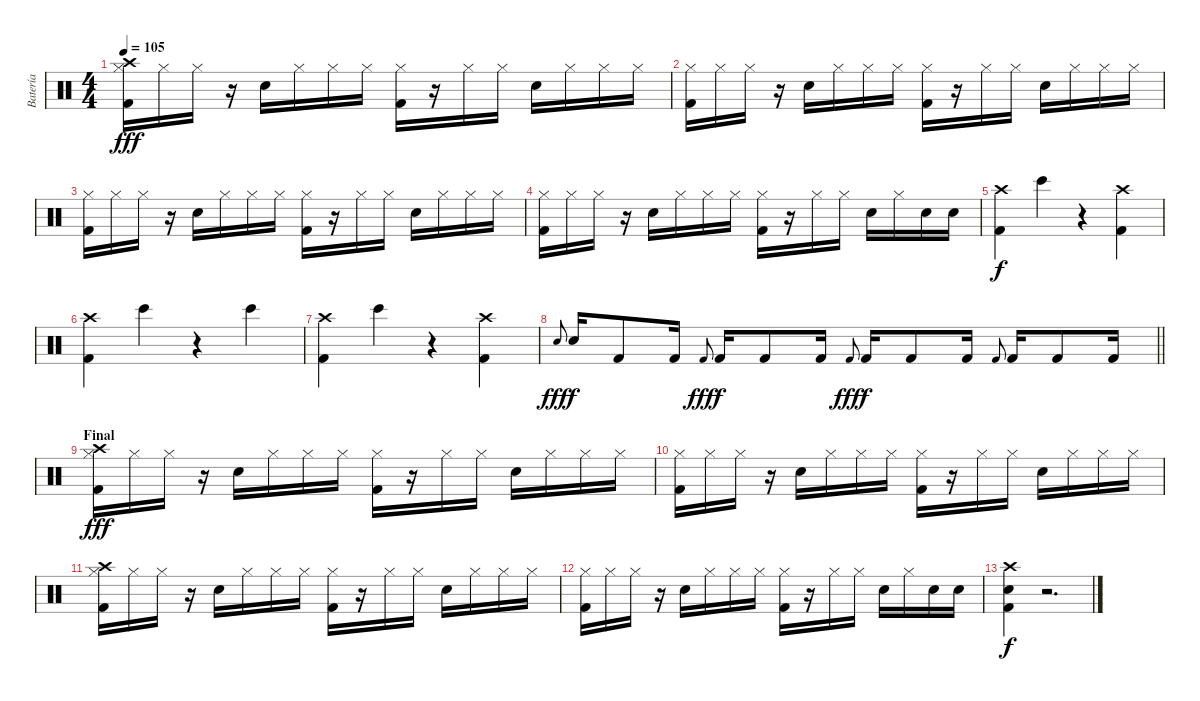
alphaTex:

\track ("Batería" "Batería") {instrument percussion}
\staff {score}
\articulation defaults
\ts (4 4)
\tempo 105
\clef neutral
\ks c
("Crash high (hit)" "Hi-Hat (closed)" "Kick (hit) 2").16{dy fff} "Hi-Hat (closed)".16 "Hi-Hat (closed)".16 r.16 "Electric Snare (hit)".16 "Hi-Hat (closed)".16 "Hi-Hat (closed)".16 "Hi-Hat (closed)".16 ("Hi-Hat (closed)" "Kick (hit) 2").16 r.16 "Hi-Hat (closed)".16 "Hi-Hat (closed)".16 "Electric Snare (hit)".16 "Hi-Hat (closed)".16 "Hi-Hat (closed)".16 "Hi-Hat (closed)".16 |
("Hi-Hat (closed)" "Kick (hit) 2").16 "Hi-Hat (closed)".16 "Hi-Hat (closed)".16 r.16 "Electric Snare (hit)".16 "Hi-Hat (closed)".16 "Hi-Hat (closed)".16 "Hi-Hat (closed)".16 ("Hi-Hat (closed)" "Kick (hit) 2").16 r.16 "Hi-Hat (closed)".16 "Hi-Hat (closed)".16 "Electric Snare (hit)".16 "Hi-Hat (closed)".16 "Hi-Hat (closed)".16 "Hi-Hat (closed)".16 |
("Hi-Hat (closed)" "Kick (hit) 2").16 "Hi-Hat (closed)".16 "Hi-Hat (closed)".16 r.16 "Electric Snare (hit)".16 "Hi-Hat (closed)".16 "Hi-Hat (closed)".16 "Hi-Hat (closed)".16 ("Hi-Hat (closed)" "Kick (hit) 2").16 r.16 "Hi-Hat (closed)".16 "Hi-Hat (closed)".16 "Electric Snare (hit)".16 "Hi-Hat (closed)".16 "Hi-Hat (closed)".16 "Hi-Hat (closed)".16 |
("Hi-Hat (closed)" "Kick (hit) 2").16 "Hi-Hat (closed)".16 "Hi-Hat (closed)".16 r.16 "Electric Snare (hit)".16 "Hi-Hat (closed)".16 "Hi-Hat (closed)".16 "Hi-Hat (closed)".16 ("Hi-Hat (closed)" "Kick (hit) 2").16 r.16 "Hi-Hat (closed)".16 "Hi-Hat (closed)".16 "Electric Snare (hit)".16 "Hi-Hat (closed)".16 "Electric Snare (hit)".16 "Electric Snare (hit)".16 |
("Crash high (hit)" "Kick (hit) 2").4{dy f} "Bongo High (hit)".4 r.4 ("Crash high (hit)" "Kick (hit) 2").4 |
("Crash high (hit)" "Kick (hit) 2").4 "Bongo High (hit)".4 r.4 "Bongo High (hit)".4 |
("Crash high (hit)" "Kick (hit) 2").4 "Bongo High (hit)".4 r.4 ("Crash high (hit)" "Kick (hit) 2").4 |
\barLineRight lightlight "Electric Snare (hit)".8{gr onbeat dy fff} "Electric Snare (hit)".16{dy f} "Kick (hit) 2".8 "Kick (hit) 2".16 "Kick (hit) 2".8{gr onbeat dy fff} "Kick (hit) 2".16{dy f} "Kick (hit) 2".8 "Kick (hit) 2".16 "Kick (hit) 2".8{gr onbeat dy fff} "Kick (hit) 2".16{dy f} "Kick (hit) 2".8 "Kick (hit) 2".16 "Kick (hit) 2"{h}.8{gr onbeat} "Kick (hit) 2".16 "Kick (hit) 2".8 "Kick (hit) 2".16
|
\section ("" "Final")
("Crash high (hit)" "Hi-Hat (closed)" "Kick (hit) 2").16{dy fff} "Hi-Hat (closed)".16 "Hi-Hat (closed)".16 r.16 "Electric Snare (hit)".16 "Hi-Hat (closed)".16 "Hi-Hat (closed)".16 "Hi-Hat (closed)".16 ("Hi-Hat (closed)" "Kick (hit) 2").16 r.16 "Hi-Hat (closed)".16 "Hi-Hat (closed)".16 "Electric Snare (hit)".16 "Hi-Hat (closed)".16 "Hi-Hat (closed)".16 "Hi-Hat (closed)".16 |
("Hi-Hat (closed)" "Kick (hit) 2").16 "Hi-Hat (closed)".16 "Hi-Hat (closed)".16 r.16 "Electric Snare (hit)".16 "Hi-Hat (closed)".16 "Hi-Hat (closed)".16 "Hi-Hat (closed)".16 ("Hi-Hat (closed)" "Kick (hit) 2").16 r.16 "Hi-Hat (closed)".16 "Hi-Hat (closed)".16 "Electric Snare (hit)".16 "Hi-Hat (closed)".16 "Hi-Hat (closed)".16 "Hi-Hat (closed)".16 |
("Crash high (hit)" "Hi-Hat (closed)" "Kick (hit) 2").16 "Hi-Hat (closed)".16 "Hi-Hat (closed)".16 r.16 "Electric Snare (hit)".16 "Hi-Hat (closed)".16 "Hi-Hat (closed)".16 "Hi-Hat (closed)".16 ("Hi-Hat (closed)" "Kick (hit) 2").16 r.16 "Hi-Hat (closed)".16 "Hi-Hat (closed)".16 "Electric Snare (hit)".16 "Hi-Hat (closed)".16 "Hi-Hat (closed)".16 "Hi-Hat (closed)".16 |
("Hi-Hat (closed)" "Kick (hit) 2").16 "Hi-Hat (closed)".16 "Hi-Hat (closed)".16 r.16 "Electric Snare (hit)".16 "Hi-Hat (closed)".16 "Hi-Hat (closed)".16 "Hi-Hat (closed)".16 ("Hi-Hat (closed)" "Kick (hit) 2").16 r.16 "Hi-Hat (closed)".16 "Hi-Hat (closed)".16 "Electric Snare (hit)".16 "Hi-Hat (closed)".16 "Electric Snare (hit)".16 "Electric Snare (hit)".16 |
("Crash high (hit)" "Electric Snare (hit)" "Kick (hit) 2").4{dy f} r.2{d}
